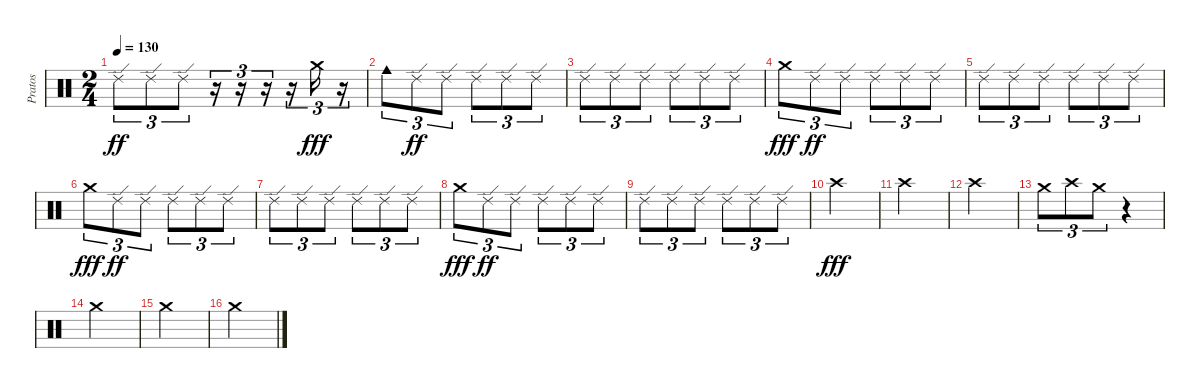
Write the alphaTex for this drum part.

\track ("Pratos" "Pratos") {instrument percussion}
\staff {score}
\articulation defaults
\ts (2 4)
\tempo 130
\clef neutral
\ks c "Ride (edge) 2".8{tu (3 2) dy ff} "Ride (edge) 2".8{tu (3 2)} "Ride (edge) 2".8{tu (3 2)}
r.16{tu (3 2)} r.16{tu (3 2)} r.16{tu (3 2)} r.16{tu (3 2)} "Crash medium (hit)".16{tu (3 2) dy fff} r.16{tu (3 2)} |
"Cowbell medium (hit)".8{tu (3 2)} "Ride (edge) 2".8{tu (3 2) dy ff} "Ride (edge) 2".8{tu (3 2)} "Ride (edge) 2".8{tu (3 2)} "Ride (edge) 2".8{tu (3 2)} "Ride (edge) 2".8{tu (3 2)} |
"Ride (edge) 2".8{tu (3 2)} "Ride (edge) 2".8{tu (3 2)} "Ride (edge) 2".8{tu (3 2)} "Ride (edge) 2".8{tu (3 2)} "Ride (edge) 2".8{tu (3 2)} "Ride (edge) 2".8{tu (3 2)} |
"Crash medium (hit)".8{tu (3 2) dy fff} "Ride (edge) 2".8{tu (3 2) dy ff} "Ride (edge) 2".8{tu (3 2)} "Ride (edge) 2".8{tu (3 2)} "Ride (edge) 2".8{tu (3 2)} "Ride (edge) 2".8{tu (3 2)} |
"Ride (edge) 2".8{tu (3 2)} "Ride (edge) 2".8{tu (3 2)} "Ride (edge) 2".8{tu (3 2)} "Ride (edge) 2".8{tu (3 2)} "Ride (edge) 2".8{tu (3 2)} "Ride (edge) 2".8{tu (3 2)} |
"Crash medium (hit)".8{tu (3 2) dy fff} "Ride (edge) 2".8{tu (3 2) dy ff} "Ride (edge) 2".8{tu (3 2)} "Ride (edge) 2".8{tu (3 2)} "Ride (edge) 2".8{tu (3 2)} "Ride (edge) 2".8{tu (3 2)} |
"Ride (edge) 2".8{tu (3 2)} "Ride (edge) 2".8{tu (3 2)} "Ride (edge) 2".8{tu (3 2)} "Ride (edge) 2".8{tu (3 2)} "Ride (edge) 2".8{tu (3 2)} "Ride (edge) 2".8{tu (3 2)} |
"Crash medium (hit)".8{tu (3 2) dy fff} "Ride (edge) 2".8{tu (3 2) dy ff} "Ride (edge) 2".8{tu (3 2)} "Ride (edge) 2".8{tu (3 2)} "Ride (edge) 2".8{tu (3 2)} "Ride (edge) 2".8{tu (3 2)} |
"Ride (edge) 2".8{tu (3 2)} "Ride (edge) 2".8{tu (3 2)} "Ride (edge) 2".8{tu (3 2)} "Ride (edge) 2".8{tu (3 2)} "Ride (edge) 2".8{tu (3 2)} "Ride (edge) 2".8{tu (3 2)} |
"Crash high (hit)".2{dy fff} |
"Crash high (hit)".2 |
"Crash high (hit)".2 |
"Crash medium (hit)".8{tu (3 2)} "Crash high (hit)".8{tu (3 2)} "Crash medium (hit)".8{tu (3 2)} r.4 |
"Crash medium (hit)".2 |
"Crash medium (hit)".2 |
"Crash medium (hit)".2
